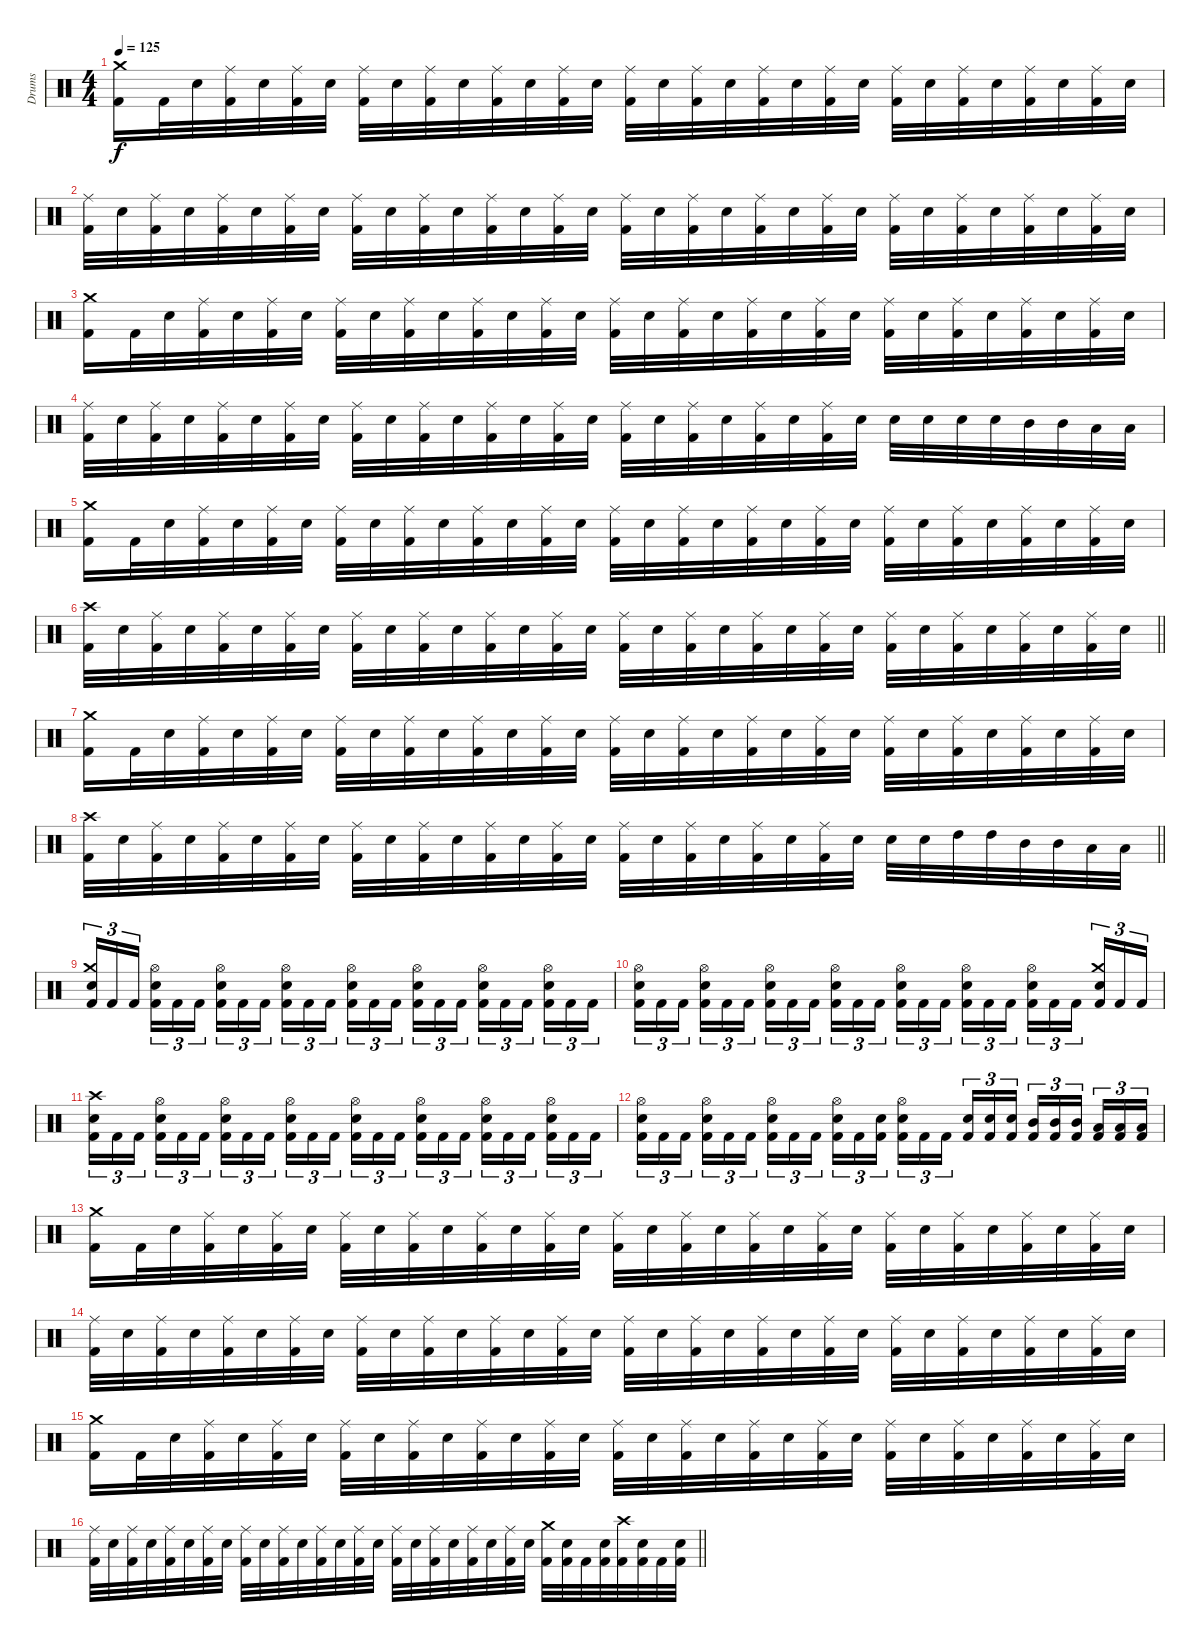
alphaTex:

\track ("Drums" "Drums") {instrument percussion}
\staff {score}
\articulation defaults
\ts (4 4)
\tempo 125
\clef neutral
\ks c
("Kick (hit) 2" "Crash medium (hit)").16{dy f} "Kick (hit) 2".32 "Electric Snare (hit)".32 ("Kick (hit) 2" "Ride (middle)").32 "Electric Snare (hit)".32 ("Kick (hit) 2" "Ride (middle)").32 "Electric Snare (hit)".32 ("Kick (hit) 2" "Ride (middle)").32 "Electric Snare (hit)".32 ("Kick (hit) 2" "Ride (middle)").32 "Electric Snare (hit)".32 ("Kick (hit) 2" "Ride (middle)").32 "Electric Snare (hit)".32 ("Kick (hit) 2" "Ride (middle)").32 "Electric Snare (hit)".32 ("Kick (hit) 2" "Ride (middle)").32 "Electric Snare (hit)".32 ("Kick (hit) 2" "Ride (middle)").32 "Electric Snare (hit)".32 ("Kick (hit) 2" "Ride (middle)").32 "Electric Snare (hit)".32 ("Kick (hit) 2" "Ride (middle)").32 "Electric Snare (hit)".32 ("Kick (hit) 2" "Ride (middle)").32 "Electric Snare (hit)".32 ("Kick (hit) 2" "Ride (middle)").32 "Electric Snare (hit)".32 ("Kick (hit) 2" "Ride (middle)").32 "Electric Snare (hit)".32 ("Kick (hit) 2" "Ride (middle)").32 "Electric Snare (hit)".32 |
("Kick (hit) 2" "Ride (middle)").32 "Electric Snare (hit)".32 ("Kick (hit) 2" "Ride (middle)").32 "Electric Snare (hit)".32 ("Kick (hit) 2" "Ride (middle)").32 "Electric Snare (hit)".32 ("Kick (hit) 2" "Ride (middle)").32 "Electric Snare (hit)".32 ("Kick (hit) 2" "Ride (middle)").32 "Electric Snare (hit)".32 ("Kick (hit) 2" "Ride (middle)").32 "Electric Snare (hit)".32 ("Kick (hit) 2" "Ride (middle)").32 "Electric Snare (hit)".32 ("Kick (hit) 2" "Ride (middle)").32 "Electric Snare (hit)".32 ("Kick (hit) 2" "Ride (middle)").32 "Electric Snare (hit)".32 ("Kick (hit) 2" "Ride (middle)").32 "Electric Snare (hit)".32 ("Kick (hit) 2" "Ride (middle)").32 "Electric Snare (hit)".32 ("Kick (hit) 2" "Ride (middle)").32 "Electric Snare (hit)".32 ("Kick (hit) 2" "Ride (middle)").32 "Electric Snare (hit)".32 ("Kick (hit) 2" "Ride (middle)").32 "Electric Snare (hit)".32 ("Kick (hit) 2" "Ride (middle)").32 "Electric Snare (hit)".32 ("Kick (hit) 2" "Ride (middle)").32 "Electric Snare (hit)".32 |
("Kick (hit) 2" "Crash medium (hit)").16 "Kick (hit) 2".32 "Electric Snare (hit)".32 ("Kick (hit) 2" "Ride (middle)").32 "Electric Snare (hit)".32 ("Kick (hit) 2" "Ride (middle)").32 "Electric Snare (hit)".32 ("Kick (hit) 2" "Ride (middle)").32 "Electric Snare (hit)".32 ("Kick (hit) 2" "Ride (middle)").32 "Electric Snare (hit)".32 ("Kick (hit) 2" "Ride (middle)").32 "Electric Snare (hit)".32 ("Kick (hit) 2" "Ride (middle)").32 "Electric Snare (hit)".32 ("Kick (hit) 2" "Ride (middle)").32 "Electric Snare (hit)".32 ("Kick (hit) 2" "Ride (middle)").32 "Electric Snare (hit)".32 ("Kick (hit) 2" "Ride (middle)").32 "Electric Snare (hit)".32 ("Kick (hit) 2" "Ride (middle)").32 "Electric Snare (hit)".32 ("Kick (hit) 2" "Ride (middle)").32 "Electric Snare (hit)".32 ("Kick (hit) 2" "Ride (middle)").32 "Electric Snare (hit)".32 ("Kick (hit) 2" "Ride (middle)").32 "Electric Snare (hit)".32 ("Kick (hit) 2" "Ride (middle)").32 "Electric Snare (hit)".32 |
("Kick (hit) 2" "Ride (middle)").32 "Electric Snare (hit)".32 ("Kick (hit) 2" "Ride (middle)").32 "Electric Snare (hit)".32 ("Kick (hit) 2" "Ride (middle)").32 "Electric Snare (hit)".32 ("Kick (hit) 2" "Ride (middle)").32 "Electric Snare (hit)".32 ("Kick (hit) 2" "Ride (middle)").32 "Electric Snare (hit)".32 ("Kick (hit) 2" "Ride (middle)").32 "Electric Snare (hit)".32 ("Kick (hit) 2" "Ride (middle)").32 "Electric Snare (hit)".32 ("Kick (hit) 2" "Ride (middle)").32 "Electric Snare (hit)".32 ("Kick (hit) 2" "Ride (middle)").32 "Electric Snare (hit)".32 ("Kick (hit) 2" "Ride (middle)").32 "Electric Snare (hit)".32 ("Kick (hit) 2" "Ride (middle)").32 "Electric Snare (hit)".32 ("Kick (hit) 2" "Ride (middle)").32 "Electric Snare (hit)".32 "Electric Snare (hit)".32 "Electric Snare (hit)".32 "Electric Snare (hit)".32 "Electric Snare (hit)".32 "Mid Tom (hit)".32 "Mid Tom (hit)".32 "Low Tom (hit)".32 "Low Tom (hit)".32 |
("Kick (hit) 2" "Crash medium (hit)").16 "Kick (hit) 2".32 "Electric Snare (hit)".32 ("Kick (hit) 2" "Ride (middle)").32 "Electric Snare (hit)".32 ("Kick (hit) 2" "Ride (middle)").32 "Electric Snare (hit)".32 ("Kick (hit) 2" "Ride (middle)").32 "Electric Snare (hit)".32 ("Kick (hit) 2" "Ride (middle)").32 "Electric Snare (hit)".32 ("Kick (hit) 2" "Ride (middle)").32 "Electric Snare (hit)".32 ("Kick (hit) 2" "Ride (middle)").32 "Electric Snare (hit)".32 ("Kick (hit) 2" "Ride (middle)").32 "Electric Snare (hit)".32 ("Kick (hit) 2" "Ride (middle)").32 "Electric Snare (hit)".32 ("Kick (hit) 2" "Ride (middle)").32 "Electric Snare (hit)".32 ("Kick (hit) 2" "Ride (middle)").32 "Electric Snare (hit)".32 ("Kick (hit) 2" "Ride (middle)").32 "Electric Snare (hit)".32 ("Kick (hit) 2" "Ride (middle)").32 "Electric Snare (hit)".32 ("Kick (hit) 2" "Ride (middle)").32 "Electric Snare (hit)".32 ("Kick (hit) 2" "Ride (middle)").32 "Electric Snare (hit)".32 |
\barLineRight lightlight
("Kick (hit) 2" "Crash high (hit)").32 "Electric Snare (hit)".32 ("Kick (hit) 2" "Ride (middle)").32 "Electric Snare (hit)".32 ("Kick (hit) 2" "Ride (middle)").32 "Electric Snare (hit)".32 ("Kick (hit) 2" "Ride (middle)").32 "Electric Snare (hit)".32 ("Kick (hit) 2" "Ride (middle)").32 "Electric Snare (hit)".32 ("Kick (hit) 2" "Ride (middle)").32 "Electric Snare (hit)".32 ("Kick (hit) 2" "Ride (middle)").32 "Electric Snare (hit)".32 ("Kick (hit) 2" "Ride (middle)").32 "Electric Snare (hit)".32 ("Kick (hit) 2" "Ride (middle)").32 "Electric Snare (hit)".32 ("Kick (hit) 2" "Ride (middle)").32 "Electric Snare (hit)".32 ("Kick (hit) 2" "Ride (middle)").32 "Electric Snare (hit)".32 ("Kick (hit) 2" "Ride (middle)").32 "Electric Snare (hit)".32 ("Kick (hit) 2" "Ride (middle)").32 "Electric Snare (hit)".32 ("Kick (hit) 2" "Ride (middle)").32 "Electric Snare (hit)".32 ("Kick (hit) 2" "Ride (middle)").32 "Electric Snare (hit)".32 ("Kick (hit) 2" "Ride (middle)").32 "Electric Snare (hit)".32 |
("Kick (hit) 2" "Crash medium (hit)").16 "Kick (hit) 2".32 "Electric Snare (hit)".32 ("Kick (hit) 2" "Ride (middle)").32 "Electric Snare (hit)".32 ("Kick (hit) 2" "Ride (middle)").32 "Electric Snare (hit)".32 ("Kick (hit) 2" "Ride (middle)").32 "Electric Snare (hit)".32 ("Kick (hit) 2" "Ride (middle)").32 "Electric Snare (hit)".32 ("Kick (hit) 2" "Ride (middle)").32 "Electric Snare (hit)".32 ("Kick (hit) 2" "Ride (middle)").32 "Electric Snare (hit)".32 ("Kick (hit) 2" "Ride (middle)").32 "Electric Snare (hit)".32 ("Kick (hit) 2" "Ride (middle)").32 "Electric Snare (hit)".32 ("Kick (hit) 2" "Ride (middle)").32 "Electric Snare (hit)".32 ("Kick (hit) 2" "Ride (middle)").32 "Electric Snare (hit)".32 ("Kick (hit) 2" "Ride (middle)").32 "Electric Snare (hit)".32 ("Kick (hit) 2" "Ride (middle)").32 "Electric Snare (hit)".32 ("Kick (hit) 2" "Ride (middle)").32 "Electric Snare (hit)".32 ("Kick (hit) 2" "Ride (middle)").32 "Electric Snare (hit)".32 |
\barLineRight lightlight
("Kick (hit) 2" "Crash high (hit)").32 "Electric Snare (hit)".32 ("Kick (hit) 2" "Ride (middle)").32 "Electric Snare (hit)".32 ("Kick (hit) 2" "Ride (middle)").32 "Electric Snare (hit)".32 ("Kick (hit) 2" "Ride (middle)").32 "Electric Snare (hit)".32 ("Kick (hit) 2" "Ride (middle)").32 "Electric Snare (hit)".32 ("Kick (hit) 2" "Ride (middle)").32 "Electric Snare (hit)".32 ("Kick (hit) 2" "Ride (middle)").32 "Electric Snare (hit)".32 ("Kick (hit) 2" "Ride (middle)").32 "Electric Snare (hit)".32 ("Kick (hit) 2" "Ride (middle)").32 "Electric Snare (hit)".32 ("Kick (hit) 2" "Ride (middle)").32 "Electric Snare (hit)".32 ("Kick (hit) 2" "Ride (middle)").32 "Electric Snare (hit)".32 ("Kick (hit) 2" "Ride (middle)").32 "Electric Snare (hit)".32 "Electric Snare (hit)".32 "Electric Snare (hit)".32 "High Tom (hit)".32 "High Tom (hit)".32 "Mid Tom (hit)".32 "Mid Tom (hit)".32 "Low Tom (hit)".32 "Low Tom (hit)".32 |
("Kick (hit) 2" "Electric Snare (hit)" "Crash medium (hit)").16{tu (3 2)} "Kick (hit) 2".16{tu (3 2)} "Kick (hit) 2".16{tu (3 2)} ("Kick (hit) 2" "Electric Snare (hit)" "Hi-Hat (open)").16{tu (3 2)} "Kick (hit) 2".16{tu (3 2)} "Kick (hit) 2".16{tu (3 2)} ("Kick (hit) 2" "Electric Snare (hit)" "Hi-Hat (open)").16{tu (3 2)} "Kick (hit) 2".16{tu (3 2)} "Kick (hit) 2".16{tu (3 2)} ("Kick (hit) 2" "Electric Snare (hit)" "Hi-Hat (open)").16{tu (3 2)} "Kick (hit) 2".16{tu (3 2)} "Kick (hit) 2".16{tu (3 2)} ("Kick (hit) 2" "Electric Snare (hit)" "Hi-Hat (open)").16{tu (3 2)} "Kick (hit) 2".16{tu (3 2)} "Kick (hit) 2".16{tu (3 2)} ("Kick (hit) 2" "Electric Snare (hit)" "Hi-Hat (open)").16{tu (3 2)} "Kick (hit) 2".16{tu (3 2)} "Kick (hit) 2".16{tu (3 2)} ("Kick (hit) 2" "Electric Snare (hit)" "Hi-Hat (open)").16{tu (3 2)} "Kick (hit) 2".16{tu (3 2)} "Kick (hit) 2".16{tu (3 2)} ("Kick (hit) 2" "Electric Snare (hit)" "Hi-Hat (open)").16{tu (3 2)} "Kick (hit) 2".16{tu (3 2)} "Kick (hit) 2".16{tu (3 2)} |
("Kick (hit) 2" "Electric Snare (hit)" "Hi-Hat (open)").16{tu (3 2)} "Kick (hit) 2".16{tu (3 2)} "Kick (hit) 2".16{tu (3 2)} ("Kick (hit) 2" "Electric Snare (hit)" "Hi-Hat (open)").16{tu (3 2)} "Kick (hit) 2".16{tu (3 2)} "Kick (hit) 2".16{tu (3 2)} ("Kick (hit) 2" "Electric Snare (hit)" "Hi-Hat (open)").16{tu (3 2)} "Kick (hit) 2".16{tu (3 2)} "Kick (hit) 2".16{tu (3 2)} ("Kick (hit) 2" "Electric Snare (hit)" "Hi-Hat (open)").16{tu (3 2)} "Kick (hit) 2".16{tu (3 2)} "Kick (hit) 2".16{tu (3 2)} ("Kick (hit) 2" "Electric Snare (hit)" "Hi-Hat (open)").16{tu (3 2)} "Kick (hit) 2".16{tu (3 2)} "Kick (hit) 2".16{tu (3 2)} ("Kick (hit) 2" "Electric Snare (hit)" "Hi-Hat (open)").16{tu (3 2)} "Kick (hit) 2".16{tu (3 2)} "Kick (hit) 2".16{tu (3 2)} ("Kick (hit) 2" "Electric Snare (hit)" "Hi-Hat (open)").16{tu (3 2)} "Kick (hit) 2".16{tu (3 2)} "Kick (hit) 2".16{tu (3 2)} ("Kick (hit) 2" "Electric Snare (hit)" "Crash medium (hit)").16{tu (3 2)} "Kick (hit) 2".16{tu (3 2)} "Kick (hit) 2".16{tu (3 2)} |
("Kick (hit) 2" "Electric Snare (hit)" "Crash high (hit)").16{tu (3 2)} "Kick (hit) 2".16{tu (3 2)} "Kick (hit) 2".16{tu (3 2)} ("Kick (hit) 2" "Electric Snare (hit)" "Hi-Hat (open)").16{tu (3 2)} "Kick (hit) 2".16{tu (3 2)} "Kick (hit) 2".16{tu (3 2)} ("Kick (hit) 2" "Electric Snare (hit)" "Hi-Hat (open)").16{tu (3 2)} "Kick (hit) 2".16{tu (3 2)} "Kick (hit) 2".16{tu (3 2)} ("Kick (hit) 2" "Electric Snare (hit)" "Hi-Hat (open)").16{tu (3 2)} "Kick (hit) 2".16{tu (3 2)} "Kick (hit) 2".16{tu (3 2)} ("Kick (hit) 2" "Electric Snare (hit)" "Hi-Hat (open)").16{tu (3 2)} "Kick (hit) 2".16{tu (3 2)} "Kick (hit) 2".16{tu (3 2)} ("Kick (hit) 2" "Electric Snare (hit)" "Hi-Hat (open)").16{tu (3 2)} "Kick (hit) 2".16{tu (3 2)} "Kick (hit) 2".16{tu (3 2)} ("Kick (hit) 2" "Electric Snare (hit)" "Hi-Hat (open)").16{tu (3 2)} "Kick (hit) 2".16{tu (3 2)} "Kick (hit) 2".16{tu (3 2)} ("Kick (hit) 2" "Electric Snare (hit)" "Hi-Hat (open)").16{tu (3 2)} "Kick (hit) 2".16{tu (3 2)} "Kick (hit) 2".16{tu (3 2)} |
("Kick (hit) 2" "Electric Snare (hit)" "Hi-Hat (open)").16{tu (3 2)} "Kick (hit) 2".16{tu (3 2)} "Kick (hit) 2".16{tu (3 2)} ("Kick (hit) 2" "Electric Snare (hit)" "Hi-Hat (open)").16{tu (3 2)} "Kick (hit) 2".16{tu (3 2)} "Kick (hit) 2".16{tu (3 2)} ("Kick (hit) 2" "Electric Snare (hit)" "Hi-Hat (open)").16{tu (3 2)} "Kick (hit) 2".16{tu (3 2)} "Kick (hit) 2".16{tu (3 2)} ("Kick (hit) 2" "Electric Snare (hit)" "Hi-Hat (open)").16{tu (3 2)} "Kick (hit) 2".16{tu (3 2)} ("Kick (hit) 2" "Electric Snare (hit)").16{tu (3 2)} ("Kick (hit) 2" "Electric Snare (hit)" "Hi-Hat (open)").16{tu (3 2)} "Kick (hit) 2".16{tu (3 2)} "Kick (hit) 2".16{tu (3 2)} ("Kick (hit) 2" "Electric Snare (hit)").16{tu (3 2)} ("Kick (hit) 2" "Electric Snare (hit)").16{tu (3 2)} ("Kick (hit) 2" "Electric Snare (hit)").16{tu (3 2)} ("Kick (hit) 2" "Mid Tom (hit)").16{tu (3 2)} ("Kick (hit) 2" "Mid Tom (hit)").16{tu (3 2)} ("Kick (hit) 2" "Mid Tom (hit)").16{tu (3 2)} ("Kick (hit) 2" "Low Tom (hit)").16{tu (3 2)} ("Kick (hit) 2" "Low Tom (hit)").16{tu (3 2)} ("Kick (hit) 2" "Low Tom (hit)").16{tu (3 2)} |
("Kick (hit) 2" "Crash medium (hit)").16 "Kick (hit) 2".32 "Electric Snare (hit)".32 ("Kick (hit) 2" "Ride (middle)").32 "Electric Snare (hit)".32 ("Kick (hit) 2" "Ride (middle)").32 "Electric Snare (hit)".32 ("Kick (hit) 2" "Ride (middle)").32 "Electric Snare (hit)".32 ("Kick (hit) 2" "Ride (middle)").32 "Electric Snare (hit)".32 ("Kick (hit) 2" "Ride (middle)").32 "Electric Snare (hit)".32 ("Kick (hit) 2" "Ride (middle)").32 "Electric Snare (hit)".32 ("Kick (hit) 2" "Ride (middle)").32 "Electric Snare (hit)".32 ("Kick (hit) 2" "Ride (middle)").32 "Electric Snare (hit)".32 ("Kick (hit) 2" "Ride (middle)").32 "Electric Snare (hit)".32 ("Kick (hit) 2" "Ride (middle)").32 "Electric Snare (hit)".32 ("Kick (hit) 2" "Ride (middle)").32 "Electric Snare (hit)".32 ("Kick (hit) 2" "Ride (middle)").32 "Electric Snare (hit)".32 ("Kick (hit) 2" "Ride (middle)").32 "Electric Snare (hit)".32 ("Kick (hit) 2" "Ride (middle)").32 "Electric Snare (hit)".32 |
("Kick (hit) 2" "Ride (middle)").32 "Electric Snare (hit)".32 ("Kick (hit) 2" "Ride (middle)").32 "Electric Snare (hit)".32 ("Kick (hit) 2" "Ride (middle)").32 "Electric Snare (hit)".32 ("Kick (hit) 2" "Ride (middle)").32 "Electric Snare (hit)".32 ("Kick (hit) 2" "Ride (middle)").32 "Electric Snare (hit)".32 ("Kick (hit) 2" "Ride (middle)").32 "Electric Snare (hit)".32 ("Kick (hit) 2" "Ride (middle)").32 "Electric Snare (hit)".32 ("Kick (hit) 2" "Ride (middle)").32 "Electric Snare (hit)".32 ("Kick (hit) 2" "Ride (middle)").32 "Electric Snare (hit)".32 ("Kick (hit) 2" "Ride (middle)").32 "Electric Snare (hit)".32 ("Kick (hit) 2" "Ride (middle)").32 "Electric Snare (hit)".32 ("Kick (hit) 2" "Ride (middle)").32 "Electric Snare (hit)".32 ("Kick (hit) 2" "Ride (middle)").32 "Electric Snare (hit)".32 ("Kick (hit) 2" "Ride (middle)").32 "Electric Snare (hit)".32 ("Kick (hit) 2" "Ride (middle)").32 "Electric Snare (hit)".32 ("Kick (hit) 2" "Ride (middle)").32 "Electric Snare (hit)".32 |
("Kick (hit) 2" "Crash medium (hit)").16 "Kick (hit) 2".32 "Electric Snare (hit)".32 ("Kick (hit) 2" "Ride (middle)").32 "Electric Snare (hit)".32 ("Kick (hit) 2" "Ride (middle)").32 "Electric Snare (hit)".32 ("Kick (hit) 2" "Ride (middle)").32 "Electric Snare (hit)".32 ("Kick (hit) 2" "Ride (middle)").32 "Electric Snare (hit)".32 ("Kick (hit) 2" "Ride (middle)").32 "Electric Snare (hit)".32 ("Kick (hit) 2" "Ride (middle)").32 "Electric Snare (hit)".32 ("Kick (hit) 2" "Ride (middle)").32 "Electric Snare (hit)".32 ("Kick (hit) 2" "Ride (middle)").32 "Electric Snare (hit)".32 ("Kick (hit) 2" "Ride (middle)").32 "Electric Snare (hit)".32 ("Kick (hit) 2" "Ride (middle)").32 "Electric Snare (hit)".32 ("Kick (hit) 2" "Ride (middle)").32 "Electric Snare (hit)".32 ("Kick (hit) 2" "Ride (middle)").32 "Electric Snare (hit)".32 ("Kick (hit) 2" "Ride (middle)").32 "Electric Snare (hit)".32 ("Kick (hit) 2" "Ride (middle)").32 "Electric Snare (hit)".32 |
\barLineRight lightlight
("Kick (hit) 2" "Ride (middle)").32 "Electric Snare (hit)".32 ("Kick (hit) 2" "Ride (middle)").32 "Electric Snare (hit)".32 ("Kick (hit) 2" "Ride (middle)").32 "Electric Snare (hit)".32 ("Kick (hit) 2" "Ride (middle)").32 "Electric Snare (hit)".32 ("Kick (hit) 2" "Ride (middle)").32 "Electric Snare (hit)".32 ("Kick (hit) 2" "Ride (middle)").32 "Electric Snare (hit)".32 ("Kick (hit) 2" "Ride (middle)").32 "Electric Snare (hit)".32 ("Kick (hit) 2" "Ride (middle)").32 "Electric Snare (hit)".32 ("Kick (hit) 2" "Ride (middle)").32 "Electric Snare (hit)".32 ("Kick (hit) 2" "Ride (middle)").32 "Electric Snare (hit)".32 ("Kick (hit) 2" "Ride (middle)").32 "Electric Snare (hit)".32 ("Kick (hit) 2" "Ride (middle)").32 "Electric Snare (hit)".32 ("Kick (hit) 2" "Crash medium (hit)").32 ("Kick (hit) 2" "Electric Snare (hit)").32 "Kick (hit) 2".32 ("Kick (hit) 2" "Electric Snare (hit)").32 ("Kick (hit) 2" "Crash high (hit)").32 ("Kick (hit) 2" "Electric Snare (hit)").32 "Kick (hit) 2".32 ("Kick (hit) 2" "Electric Snare (hit)").32
